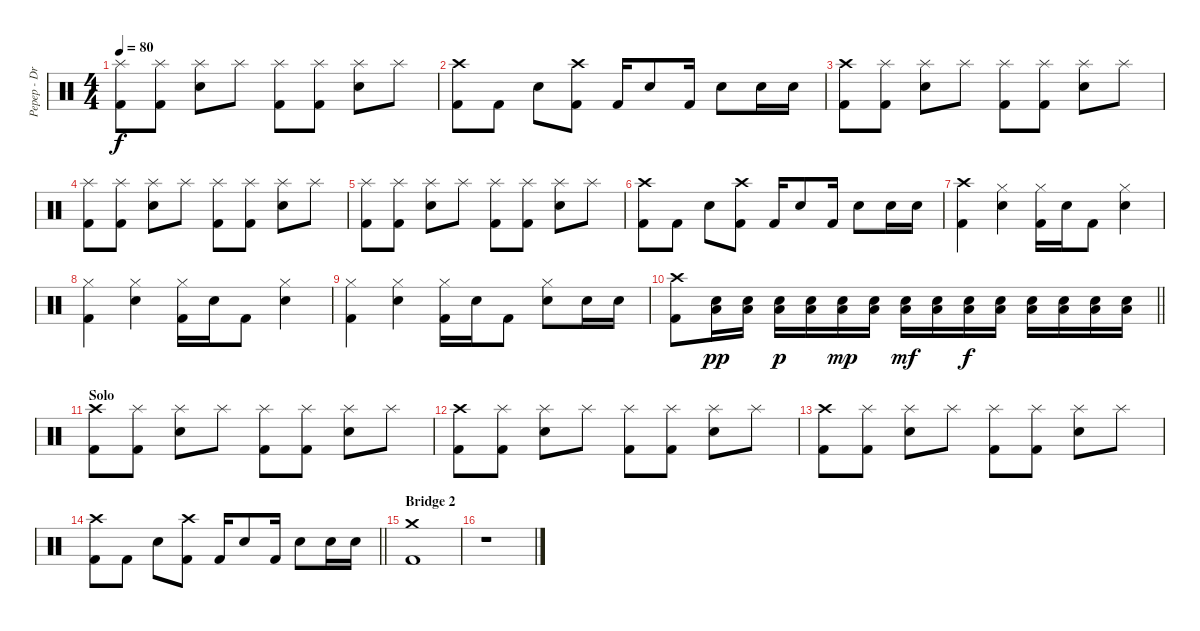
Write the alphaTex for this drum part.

\track ("Pepep - Drum" "Pepep - Dr") {instrument percussion}
\staff {score}
\articulation defaults
\ts (4 4)
\tempo 80
\clef neutral
\ks c
("Splash (hit)" "Kick (hit) 2").8{dy f} ("Splash (hit)" "Kick (hit) 2").8 ("Splash (hit)" "Electric Snare (hit)").8 "Splash (hit)".8 ("Splash (hit)" "Kick (hit) 2").8 ("Splash (hit)" "Kick (hit) 2").8 ("Splash (hit)" "Electric Snare (hit)").8 "Splash (hit)".8 |
("Crash high (hit)" "Kick (hit) 2").8 "Kick (hit) 2".8 "Electric Snare (hit)".8 ("Crash high (hit)" "Kick (hit) 2").8 "Kick (hit) 2".16 "Electric Snare (hit)".8 "Kick (hit) 2".16 "Electric Snare (hit)".8 "Electric Snare (hit)".16 "Electric Snare (hit)".16 |
("Crash high (hit)" "Kick (hit) 2").8 ("Splash (hit)" "Kick (hit) 2").8 ("Splash (hit)" "Electric Snare (hit)").8 "Splash (hit)".8 ("Splash (hit)" "Kick (hit) 2").8 ("Splash (hit)" "Kick (hit) 2").8 ("Splash (hit)" "Electric Snare (hit)").8 "Splash (hit)".8 |
("Splash (hit)" "Kick (hit) 2").8 ("Splash (hit)" "Kick (hit) 2").8 ("Splash (hit)" "Electric Snare (hit)").8 "Splash (hit)".8 ("Splash (hit)" "Kick (hit) 2").8 ("Splash (hit)" "Kick (hit) 2").8 ("Splash (hit)" "Electric Snare (hit)").8 "Splash (hit)".8 |
("Splash (hit)" "Kick (hit) 2").8 ("Splash (hit)" "Kick (hit) 2").8 ("Splash (hit)" "Electric Snare (hit)").8 "Splash (hit)".8 ("Splash (hit)" "Kick (hit) 2").8 ("Splash (hit)" "Kick (hit) 2").8 ("Splash (hit)" "Electric Snare (hit)").8 "Splash (hit)".8 |
("Crash high (hit)" "Kick (hit) 2").8 "Kick (hit) 2".8 "Electric Snare (hit)".8 ("Crash high (hit)" "Kick (hit) 2").8 "Kick (hit) 2".16 "Electric Snare (hit)".8 "Kick (hit) 2".16 "Electric Snare (hit)".8 "Electric Snare (hit)".16 "Electric Snare (hit)".16 |
("Crash high (hit)" "Kick (hit) 2").4 ("Hi-Hat (closed)" "Electric Snare (hit)").4 ("Hi-Hat (closed)" "Kick (hit) 2").16 "Electric Snare (hit)".16 "Kick (hit) 2".8 ("Hi-Hat (closed)" "Electric Snare (hit)").4 |
("Hi-Hat (closed)" "Kick (hit) 2").4 ("Hi-Hat (closed)" "Electric Snare (hit)").4 ("Hi-Hat (closed)" "Kick (hit) 2").16 "Electric Snare (hit)".16 "Kick (hit) 2".8 ("Hi-Hat (closed)" "Electric Snare (hit)").4 |
("Hi-Hat (closed)" "Kick (hit) 2").4 ("Hi-Hat (closed)" "Electric Snare (hit)").4 ("Hi-Hat (closed)" "Kick (hit) 2").16 "Electric Snare (hit)".16 "Kick (hit) 2".8 ("Hi-Hat (closed)" "Electric Snare (hit)").8 "Electric Snare (hit)".16 "Electric Snare (hit)".16 |
\barLineRight lightlight
("Crash high (hit)" "Kick (hit) 2").8 ("Electric Snare (hit)" "Low Floor Tom (hit)").16{dy pp} ("Electric Snare (hit)" "Low Floor Tom (hit)").16 ("Electric Snare (hit)" "Low Floor Tom (hit)").16{dy p} ("Electric Snare (hit)" "Low Floor Tom (hit)").16 ("Electric Snare (hit)" "Low Floor Tom (hit)").16{dy mp} ("Electric Snare (hit)" "Low Floor Tom (hit)").16 ("Electric Snare (hit)" "Low Floor Tom (hit)").16{dy mf} ("Electric Snare (hit)" "Low Floor Tom (hit)").16 ("Electric Snare (hit)" "Low Floor Tom (hit)").16{dy f} ("Electric Snare (hit)" "Low Floor Tom (hit)").16 ("Electric Snare (hit)" "Low Floor Tom (hit)").16 ("Electric Snare (hit)" "Low Floor Tom (hit)").16 ("Electric Snare (hit)" "Low Floor Tom (hit)").16 ("Electric Snare (hit)" "Low Floor Tom (hit)").16 |
\section ("" "Solo")
("Crash high (hit)" "Kick (hit) 2").8 ("Splash (hit)" "Kick (hit) 2").8 ("Splash (hit)" "Electric Snare (hit)").8 "Splash (hit)".8 ("Splash (hit)" "Kick (hit) 2").8 ("Splash (hit)" "Kick (hit) 2").8 ("Splash (hit)" "Electric Snare (hit)").8 "Splash (hit)".8 |
("Crash high (hit)" "Kick (hit) 2").8 ("Splash (hit)" "Kick (hit) 2").8 ("Splash (hit)" "Electric Snare (hit)").8 "Splash (hit)".8 ("Splash (hit)" "Kick (hit) 2").8 ("Splash (hit)" "Kick (hit) 2").8 ("Splash (hit)" "Electric Snare (hit)").8 "Splash (hit)".8 |
("Crash high (hit)" "Kick (hit) 2").8 ("Splash (hit)" "Kick (hit) 2").8 ("Splash (hit)" "Electric Snare (hit)").8 "Splash (hit)".8 ("Splash (hit)" "Kick (hit) 2").8 ("Splash (hit)" "Kick (hit) 2").8 ("Splash (hit)" "Electric Snare (hit)").8 "Splash (hit)".8 |
\barLineRight lightlight
("Crash high (hit)" "Kick (hit) 2").8 "Kick (hit) 2".8 "Electric Snare (hit)".8 ("Crash high (hit)" "Kick (hit) 2").8 "Kick (hit) 2".16 "Electric Snare (hit)".8 "Kick (hit) 2".16 "Electric Snare (hit)".8 "Electric Snare (hit)".16 "Electric Snare (hit)".16 |
\section ("" "Bridge 2")
("Crash medium (hit)" "Kick (hit) 2").1 |
r.1
